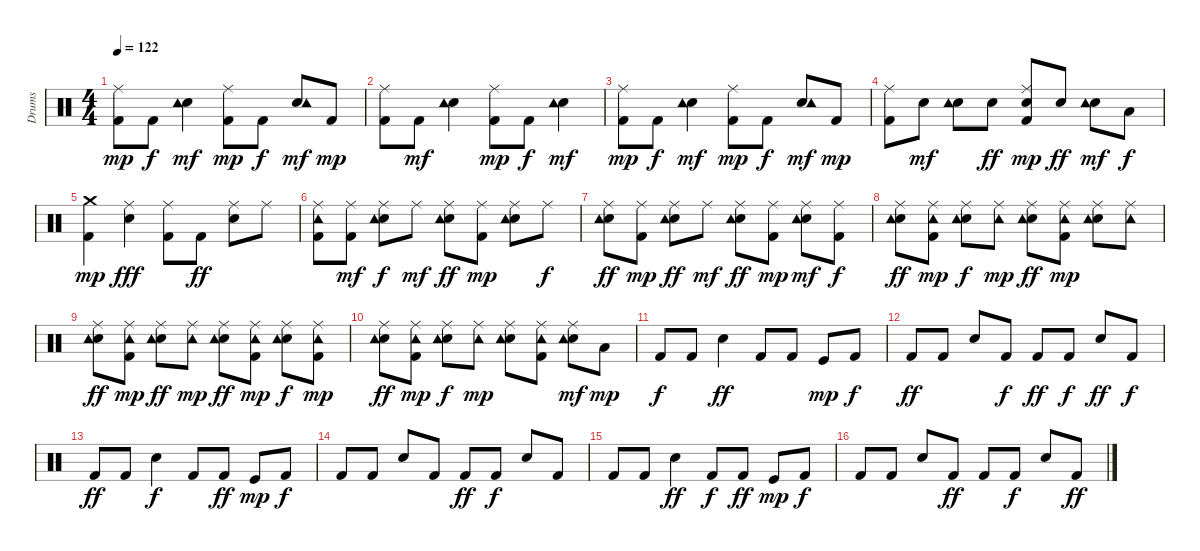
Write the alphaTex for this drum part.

\track ("Drums" "Drums") {instrument percussion}
\staff {score}
\articulation defaults
\ts (4 4)
\tempo 122
\clef neutral
\ks c
("Kick (hit) 2" "Ride (middle)").8{dy mp} "Kick (hit) 2".8{dy f} ("Snare (hit) 2" "Tambourine (hit)").4{dy mf} ("Kick (hit) 2" "Ride (middle)").8{dy mp} "Kick (hit) 2".8{dy f} ("Snare (hit) 2" "Tambourine (hit)").8{dy mf} "Kick (hit) 2".8{dy mp} |
("Kick (hit) 2" "Ride (middle)").8 "Kick (hit) 2".8{dy mf} ("Snare (hit) 2" "Tambourine (hit)").4 ("Kick (hit) 2" "Ride (middle)").8{dy mp} "Kick (hit) 2".8{dy f} ("Snare (hit) 2" "Tambourine (hit)").4{dy mf} |
("Kick (hit) 2" "Ride (middle)").8{dy mp} "Kick (hit) 2".8{dy f} ("Snare (hit) 2" "Tambourine (hit)").4{dy mf} ("Kick (hit) 2" "Ride (middle)").8{dy mp} "Kick (hit) 2".8{dy f} ("Snare (hit) 2" "Tambourine (hit)").8{dy mf} "Kick (hit) 2".8{dy mp} |
("Kick (hit) 2" "Ride (middle)").8 "Snare (hit) 2".8{dy mf} ("Snare (hit) 2" "Tambourine (hit)").8 "Snare (hit) 2".8{dy ff} ("Kick (hit) 2" "Snare (hit) 2" "Ride (middle)").8{dy mp} "Snare (hit) 2".8{dy ff} ("Snare (hit) 2" "Tambourine (hit)").8{dy mf} "Low Floor Tom (hit)".8{dy f} |
("Kick (hit) 2" "Crash medium (hit)").4{dy mp} ("Snare (hit) 2" "Ride (middle)").4{dy fff} ("Kick (hit) 2" "Ride (middle)").8 "Kick (hit) 2".8{dy ff} ("Snare (hit) 2" "Ride (middle)").8 "Ride (middle)".8 |
("Kick (hit) 2" "Ride (middle)" "Tambourine (hit)").8 ("Kick (hit) 2" "Ride (middle)").8{dy mf} ("Snare (hit) 2" "Ride (middle)" "Tambourine (hit)").8{dy f} "Ride (middle)".8{dy mf} ("Snare (hit) 2" "Ride (middle)" "Tambourine (hit)").8{dy ff} ("Kick (hit) 2" "Ride (middle)").8{dy mp} ("Snare (hit) 2" "Ride (middle)" "Tambourine (hit)").8 "Ride (middle)".8{dy f} |
("Snare (hit) 2" "Ride (middle)" "Tambourine (hit)").8{dy ff} ("Kick (hit) 2" "Ride (middle)").8{dy mp} ("Snare (hit) 2" "Ride (middle)" "Tambourine (hit)").8{dy ff} "Ride (middle)".8{dy mf} ("Snare (hit) 2" "Ride (middle)" "Tambourine (hit)").8{dy ff} ("Kick (hit) 2" "Ride (middle)").8{dy mp} ("Snare (hit) 2" "Ride (middle)" "Tambourine (hit)").8{dy mf} ("Kick (hit) 2" "Ride (middle)").8{dy f} |
("Snare (hit) 2" "Ride (middle)" "Tambourine (hit)").8{dy ff} ("Kick (hit) 2" "Ride (middle)" "Tambourine (hit)").8{dy mp} ("Snare (hit) 2" "Ride (middle)" "Tambourine (hit)").8{dy f} ("Ride (middle)" "Tambourine (hit)").8{dy mp} ("Snare (hit) 2" "Ride (middle)" "Tambourine (hit)").8{dy ff} ("Kick (hit) 2" "Ride (middle)" "Tambourine (hit)").8{dy mp} ("Snare (hit) 2" "Ride (middle)" "Tambourine (hit)").8 ("Ride (middle)" "Tambourine (hit)").8 |
("Snare (hit) 2" "Ride (middle)" "Tambourine (hit)").8{dy ff} ("Kick (hit) 2" "Ride (middle)" "Tambourine (hit)").8{dy mp} ("Snare (hit) 2" "Ride (middle)" "Tambourine (hit)").8{dy ff} ("Ride (middle)" "Tambourine (hit)").8{dy mp} ("Snare (hit) 2" "Ride (middle)" "Tambourine (hit)").8{dy ff} ("Kick (hit) 2" "Ride (middle)" "Tambourine (hit)").8{dy mp} ("Snare (hit) 2" "Ride (middle)" "Tambourine (hit)").8{dy f} ("Kick (hit) 2" "Ride (middle)" "Tambourine (hit)").8{dy mp} |
("Snare (hit) 2" "Ride (middle)" "Tambourine (hit)").8{dy ff} ("Kick (hit) 2" "Ride (middle)" "Tambourine (hit)").8{dy mp} ("Snare (hit) 2" "Ride (middle)" "Tambourine (hit)").8{dy f} ("Ride (middle)" "Tambourine (hit)").8{dy mp} ("Snare (hit) 2" "Ride (middle)" "Tambourine (hit)").8 ("Kick (hit) 2" "Ride (middle)" "Tambourine (hit)").8 ("Snare (hit) 2" "Ride (middle)" "Tambourine (hit)").8{dy mf} "Low Tom (hit)".8{dy mp} |
"Kick (hit) 2".8{dy f} "Kick (hit) 2".8 "Snare (hit) 2".4{dy ff} "Kick (hit) 2".8 "Kick (hit) 2".8 "Kick (hit)".8{dy mp} "Kick (hit) 2".8{dy f} |
"Kick (hit) 2".8{dy ff} "Kick (hit) 2".8 "Snare (hit) 2".8 "Kick (hit) 2".8{dy f} "Kick (hit) 2".8{dy ff} "Kick (hit) 2".8{dy f} "Snare (hit) 2".8{dy ff} "Kick (hit) 2".8{dy f} |
"Kick (hit) 2".8{dy ff} "Kick (hit) 2".8 "Snare (hit) 2".4{dy f} "Kick (hit) 2".8 "Kick (hit) 2".8{dy ff} "Kick (hit)".8{dy mp} "Kick (hit) 2".8{dy f} |
"Kick (hit) 2".8 "Kick (hit) 2".8 "Snare (hit) 2".8 "Kick (hit) 2".8 "Kick (hit) 2".8{dy ff} "Kick (hit) 2".8{dy f} "Snare (hit) 2".8 "Kick (hit) 2".8 |
"Kick (hit) 2".8 "Kick (hit) 2".8 "Snare (hit) 2".4{dy ff} "Kick (hit) 2".8{dy f} "Kick (hit) 2".8{dy ff} "Kick (hit)".8{dy mp} "Kick (hit) 2".8{dy f} |
"Kick (hit) 2".8 "Kick (hit) 2".8 "Snare (hit) 2".8 "Kick (hit) 2".8{dy ff} "Kick (hit) 2".8 "Kick (hit) 2".8{dy f} "Snare (hit) 2".8 "Kick (hit) 2".8{dy ff}
